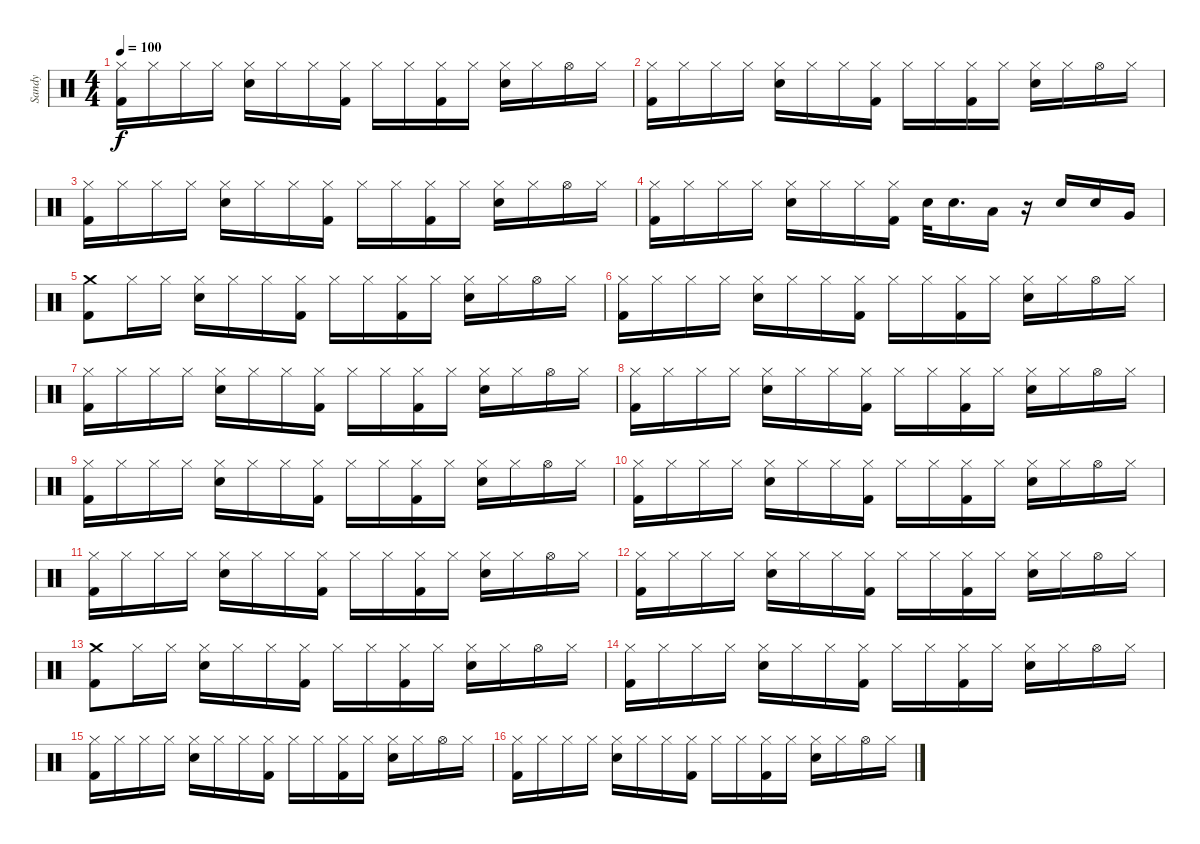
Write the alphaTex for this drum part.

\track ("Sandy" "Sandy") {instrument percussion}
\staff {score}
\articulation defaults
\ts (4 4)
\tempo 100
\clef neutral
\ks c
("Hi-Hat (closed)" "Kick (hit) 2").16{dy f} "Hi-Hat (closed)".16 "Hi-Hat (closed)".16 "Hi-Hat (closed)".16 ("Hi-Hat (closed)" "Snare (hit) 2").16 "Hi-Hat (closed)".16 "Hi-Hat (closed)".16 ("Hi-Hat (closed)" "Kick (hit) 2").16 "Hi-Hat (closed)".16 "Hi-Hat (closed)".16 ("Hi-Hat (closed)" "Kick (hit) 2").16 "Hi-Hat (closed)".16 ("Hi-Hat (closed)" "Snare (hit) 2").16 "Hi-Hat (closed)".16 "Hi-Hat (open)".16 "Hi-Hat (closed)".16 |
("Hi-Hat (closed)" "Kick (hit) 2").16 "Hi-Hat (closed)".16 "Hi-Hat (closed)".16 "Hi-Hat (closed)".16 ("Hi-Hat (closed)" "Snare (hit) 2").16 "Hi-Hat (closed)".16 "Hi-Hat (closed)".16 ("Hi-Hat (closed)" "Kick (hit) 2").16 "Hi-Hat (closed)".16 "Hi-Hat (closed)".16 ("Hi-Hat (closed)" "Kick (hit) 2").16 "Hi-Hat (closed)".16 ("Hi-Hat (closed)" "Snare (hit) 2").16 "Hi-Hat (closed)".16 "Hi-Hat (open)".16 "Hi-Hat (closed)".16 |
("Hi-Hat (closed)" "Kick (hit) 2").16 "Hi-Hat (closed)".16 "Hi-Hat (closed)".16 "Hi-Hat (closed)".16 ("Hi-Hat (closed)" "Snare (hit) 2").16 "Hi-Hat (closed)".16 "Hi-Hat (closed)".16 ("Hi-Hat (closed)" "Kick (hit) 2").16 "Hi-Hat (closed)".16 "Hi-Hat (closed)".16 ("Hi-Hat (closed)" "Kick (hit) 2").16 "Hi-Hat (closed)".16 ("Hi-Hat (closed)" "Snare (hit) 2").16 "Hi-Hat (closed)".16 "Hi-Hat (open)".16 "Hi-Hat (closed)".16 |
("Hi-Hat (closed)" "Kick (hit) 2").16 "Hi-Hat (closed)".16 "Hi-Hat (closed)".16 "Hi-Hat (closed)".16 ("Hi-Hat (closed)" "Snare (hit) 2").16 "Hi-Hat (closed)".16 "Hi-Hat (closed)".16 ("Hi-Hat (closed)" "Kick (hit) 2").16 "Electric Snare (hit)".32 "Electric Snare (hit)".16{d} "Low Tom (hit)".16 r.16 "Electric Snare (hit)".16 "Electric Snare (hit)".16 "Very Low Tom (hit)".16 |
("Crash medium (hit)" "Kick (hit) 2").8 "Hi-Hat (closed)".16 "Hi-Hat (closed)".16 ("Hi-Hat (closed)" "Snare (hit) 2").16 "Hi-Hat (closed)".16 "Hi-Hat (closed)".16 ("Hi-Hat (closed)" "Kick (hit) 2").16 "Hi-Hat (closed)".16 "Hi-Hat (closed)".16 ("Hi-Hat (closed)" "Kick (hit) 2").16 "Hi-Hat (closed)".16 ("Hi-Hat (closed)" "Snare (hit) 2").16 "Hi-Hat (closed)".16 "Hi-Hat (open)".16 "Hi-Hat (closed)".16 |
("Hi-Hat (closed)" "Kick (hit) 2").16 "Hi-Hat (closed)".16 "Hi-Hat (closed)".16 "Hi-Hat (closed)".16 ("Hi-Hat (closed)" "Snare (hit) 2").16 "Hi-Hat (closed)".16 "Hi-Hat (closed)".16 ("Hi-Hat (closed)" "Kick (hit) 2").16 "Hi-Hat (closed)".16 "Hi-Hat (closed)".16 ("Hi-Hat (closed)" "Kick (hit) 2").16 "Hi-Hat (closed)".16 ("Hi-Hat (closed)" "Snare (hit) 2").16 "Hi-Hat (closed)".16 "Hi-Hat (open)".16 "Hi-Hat (closed)".16 |
("Hi-Hat (closed)" "Kick (hit) 2").16 "Hi-Hat (closed)".16 "Hi-Hat (closed)".16 "Hi-Hat (closed)".16 ("Hi-Hat (closed)" "Snare (hit) 2").16 "Hi-Hat (closed)".16 "Hi-Hat (closed)".16 ("Hi-Hat (closed)" "Kick (hit) 2").16 "Hi-Hat (closed)".16 "Hi-Hat (closed)".16 ("Hi-Hat (closed)" "Kick (hit) 2").16 "Hi-Hat (closed)".16 ("Hi-Hat (closed)" "Snare (hit) 2").16 "Hi-Hat (closed)".16 "Hi-Hat (open)".16 "Hi-Hat (closed)".16 |
("Hi-Hat (closed)" "Kick (hit) 2").16 "Hi-Hat (closed)".16 "Hi-Hat (closed)".16 "Hi-Hat (closed)".16 ("Hi-Hat (closed)" "Snare (hit) 2").16 "Hi-Hat (closed)".16 "Hi-Hat (closed)".16 ("Hi-Hat (closed)" "Kick (hit) 2").16 "Hi-Hat (closed)".16 "Hi-Hat (closed)".16 ("Hi-Hat (closed)" "Kick (hit) 2").16 "Hi-Hat (closed)".16 ("Hi-Hat (closed)" "Snare (hit) 2").16 "Hi-Hat (closed)".16 "Hi-Hat (open)".16 "Hi-Hat (closed)".16 |
("Hi-Hat (closed)" "Kick (hit) 2").16 "Hi-Hat (closed)".16 "Hi-Hat (closed)".16 "Hi-Hat (closed)".16 ("Hi-Hat (closed)" "Snare (hit) 2").16 "Hi-Hat (closed)".16 "Hi-Hat (closed)".16 ("Hi-Hat (closed)" "Kick (hit) 2").16 "Hi-Hat (closed)".16 "Hi-Hat (closed)".16 ("Hi-Hat (closed)" "Kick (hit) 2").16 "Hi-Hat (closed)".16 ("Hi-Hat (closed)" "Snare (hit) 2").16 "Hi-Hat (closed)".16 "Hi-Hat (open)".16 "Hi-Hat (closed)".16 |
("Hi-Hat (closed)" "Kick (hit) 2").16 "Hi-Hat (closed)".16 "Hi-Hat (closed)".16 "Hi-Hat (closed)".16 ("Hi-Hat (closed)" "Snare (hit) 2").16 "Hi-Hat (closed)".16 "Hi-Hat (closed)".16 ("Hi-Hat (closed)" "Kick (hit) 2").16 "Hi-Hat (closed)".16 "Hi-Hat (closed)".16 ("Hi-Hat (closed)" "Kick (hit) 2").16 "Hi-Hat (closed)".16 ("Hi-Hat (closed)" "Snare (hit) 2").16 "Hi-Hat (closed)".16 "Hi-Hat (open)".16 "Hi-Hat (closed)".16 |
("Hi-Hat (closed)" "Kick (hit) 2").16 "Hi-Hat (closed)".16 "Hi-Hat (closed)".16 "Hi-Hat (closed)".16 ("Hi-Hat (closed)" "Snare (hit) 2").16 "Hi-Hat (closed)".16 "Hi-Hat (closed)".16 ("Hi-Hat (closed)" "Kick (hit) 2").16 "Hi-Hat (closed)".16 "Hi-Hat (closed)".16 ("Hi-Hat (closed)" "Kick (hit) 2").16 "Hi-Hat (closed)".16 ("Hi-Hat (closed)" "Snare (hit) 2").16 "Hi-Hat (closed)".16 "Hi-Hat (open)".16 "Hi-Hat (closed)".16 |
("Hi-Hat (closed)" "Kick (hit) 2").16 "Hi-Hat (closed)".16 "Hi-Hat (closed)".16 "Hi-Hat (closed)".16 ("Hi-Hat (closed)" "Snare (hit) 2").16 "Hi-Hat (closed)".16 "Hi-Hat (closed)".16 ("Hi-Hat (closed)" "Kick (hit) 2").16 "Hi-Hat (closed)".16 "Hi-Hat (closed)".16 ("Hi-Hat (closed)" "Kick (hit) 2").16 "Hi-Hat (closed)".16 ("Hi-Hat (closed)" "Snare (hit) 2").16 "Hi-Hat (closed)".16 "Hi-Hat (open)".16 "Hi-Hat (closed)".16 |
("Crash medium (hit)" "Kick (hit) 2").8 "Hi-Hat (closed)".16 "Hi-Hat (closed)".16 ("Hi-Hat (closed)" "Snare (hit) 2").16 "Hi-Hat (closed)".16 "Hi-Hat (closed)".16 ("Hi-Hat (closed)" "Kick (hit) 2").16 "Hi-Hat (closed)".16 "Hi-Hat (closed)".16 ("Hi-Hat (closed)" "Kick (hit) 2").16 "Hi-Hat (closed)".16 ("Hi-Hat (closed)" "Snare (hit) 2").16 "Hi-Hat (closed)".16 "Hi-Hat (open)".16 "Hi-Hat (closed)".16 |
("Hi-Hat (closed)" "Kick (hit) 2").16 "Hi-Hat (closed)".16 "Hi-Hat (closed)".16 "Hi-Hat (closed)".16 ("Hi-Hat (closed)" "Snare (hit) 2").16 "Hi-Hat (closed)".16 "Hi-Hat (closed)".16 ("Hi-Hat (closed)" "Kick (hit) 2").16 "Hi-Hat (closed)".16 "Hi-Hat (closed)".16 ("Hi-Hat (closed)" "Kick (hit) 2").16 "Hi-Hat (closed)".16 ("Hi-Hat (closed)" "Snare (hit) 2").16 "Hi-Hat (closed)".16 "Hi-Hat (open)".16 "Hi-Hat (closed)".16 |
("Hi-Hat (closed)" "Kick (hit) 2").16 "Hi-Hat (closed)".16 "Hi-Hat (closed)".16 "Hi-Hat (closed)".16 ("Hi-Hat (closed)" "Snare (hit) 2").16 "Hi-Hat (closed)".16 "Hi-Hat (closed)".16 ("Hi-Hat (closed)" "Kick (hit) 2").16 "Hi-Hat (closed)".16 "Hi-Hat (closed)".16 ("Hi-Hat (closed)" "Kick (hit) 2").16 "Hi-Hat (closed)".16 ("Hi-Hat (closed)" "Snare (hit) 2").16 "Hi-Hat (closed)".16 "Hi-Hat (open)".16 "Hi-Hat (closed)".16 |
("Hi-Hat (closed)" "Kick (hit) 2").16 "Hi-Hat (closed)".16 "Hi-Hat (closed)".16 "Hi-Hat (closed)".16 ("Hi-Hat (closed)" "Snare (hit) 2").16 "Hi-Hat (closed)".16 "Hi-Hat (closed)".16 ("Hi-Hat (closed)" "Kick (hit) 2").16 "Hi-Hat (closed)".16 "Hi-Hat (closed)".16 ("Hi-Hat (closed)" "Kick (hit) 2").16 "Hi-Hat (closed)".16 ("Hi-Hat (closed)" "Snare (hit) 2").16 "Hi-Hat (closed)".16 "Hi-Hat (open)".16 "Hi-Hat (closed)".16
